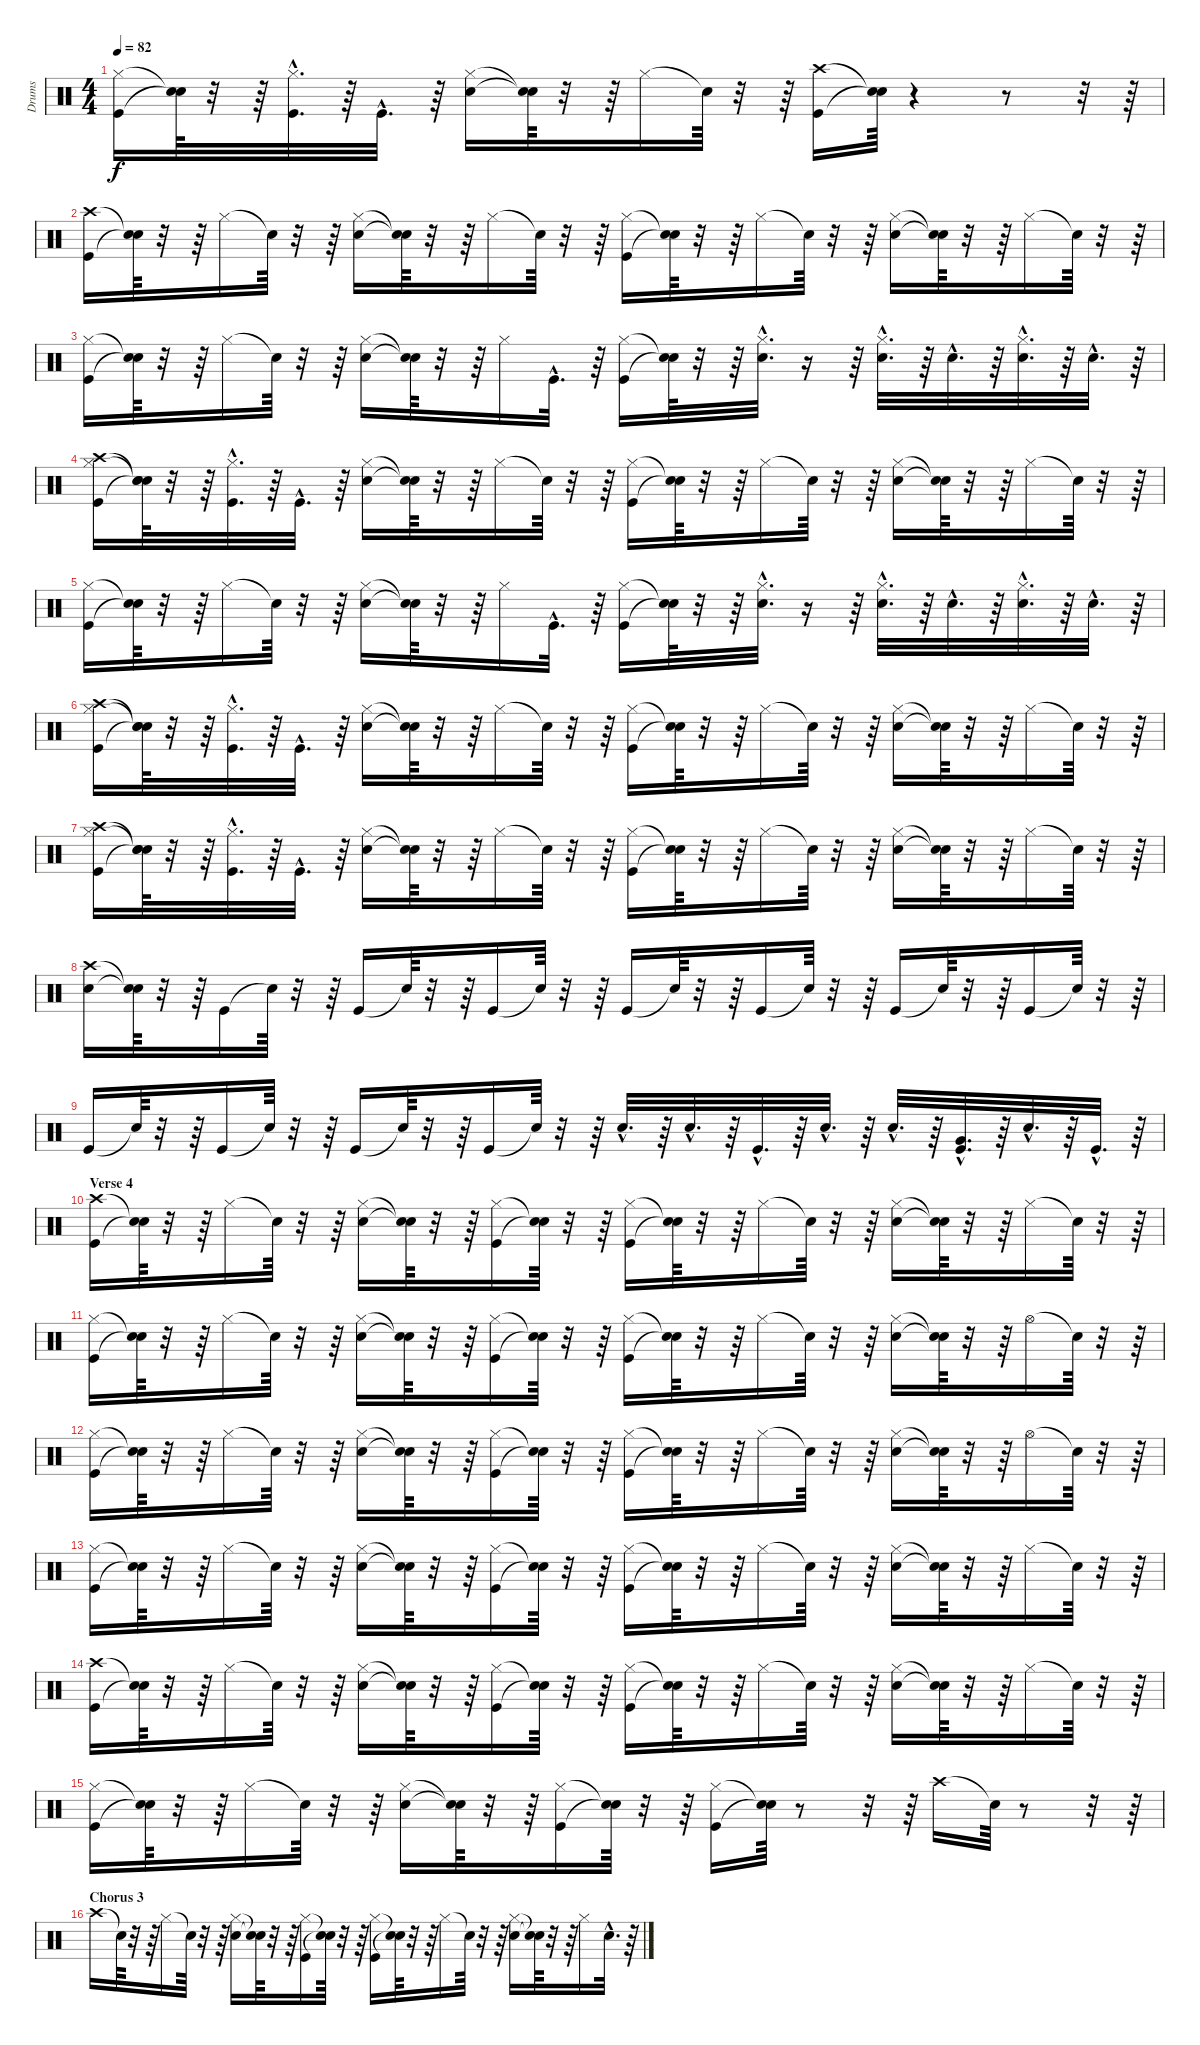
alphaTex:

\track ("Drums" "Drums") {instrument percussion}
\staff {score}
\articulation defaults
\ts (4 4)
\tempo 82
\clef neutral
\ks c
("Kick (hit)" "Hi-Hat (closed)").16{dy f} ("Snare (hit)"{t} "Snare (hit)"{t}).64 r.32 r.64 ("Kick (hit)"{hac} "Hi-Hat (closed)"{hac}).32{d} r.64 "Kick (hit)"{hac}.32{d} r.64 ("Snare (hit) 2" "Hi-Hat (closed)").16 ("Snare (hit)"{t} "Snare (hit)"{t}).64 r.32 r.64 "Hi-Hat (closed)".16 "Snare (hit)"{t}.64 r.32 r.64 ("Crash high (hit)" "Kick (hit)").16 ("Snare (hit)"{t} "Snare (hit)"{t}).64 r.4 r.8 r.32 r.64 |
("Crash high (hit)" "Kick (hit)").16 ("Snare (hit)"{t} "Snare (hit)"{t}).64 r.32 r.64 "Hi-Hat (closed)".16 "Snare (hit)"{t}.64 r.32 r.64 ("Snare (hit) 2" "Hi-Hat (closed)").16 ("Snare (hit)"{t} "Snare (hit)"{t}).64 r.32 r.64 "Hi-Hat (closed)".16 "Snare (hit)"{t}.64 r.32 r.64 ("Hi-Hat (closed)" "Kick (hit)").16 ("Snare (hit)"{t} "Snare (hit)"{t}).64 r.32 r.64 "Hi-Hat (closed)".16 "Snare (hit)"{t}.64 r.32 r.64 ("Hi-Hat (closed)" "Snare (hit) 2").16 ("Snare (hit)"{t} "Snare (hit)"{t}).64 r.32 r.64 "Hi-Hat (closed)".16 "Snare (hit)"{t}.64 r.32 r.64 |
("Kick (hit)" "Hi-Hat (closed)").16 ("Snare (hit)"{t} "Snare (hit)"{t}).64 r.32 r.64 "Hi-Hat (closed)".16 "Snare (hit)"{t}.64 r.32 r.64 ("Snare (hit) 2" "Hi-Hat (closed)").16 ("Snare (hit)"{t} "Snare (hit)"{t}).64 r.32 r.64 "Hi-Hat (closed)".16 "Kick (hit)"{hac}.32{d} r.64 ("Hi-Hat (closed)" "Kick (hit)").16 ("Snare (hit)"{t} "Snare (hit)"{t}).64 r.32 r.64 ("Hi-Hat (closed)"{hac} "Snare (hit) 2"{hac}).32{d} r.16 r.64 ("Hi-Hat (closed)"{hac} "Snare (hit) 2"{hac}).32{d} r.64 "Snare (hit) 2"{hac}.32{d} r.64 ("Hi-Hat (closed)"{hac} "Snare (hit) 2"{hac}).32{d} r.64 "Snare (hit) 2"{hac}.32{d} r.64 |
("Crash high (hit)" "Kick (hit)" "Hi-Hat (closed)").16 ("Snare (hit)"{t} "Snare (hit)"{t} "Snare (hit)"{t}).64 r.32 r.64 ("Hi-Hat (closed)"{hac} "Kick (hit)"{hac}).32{d} r.64 "Kick (hit)"{hac}.32{d} r.64 ("Snare (hit) 2" "Hi-Hat (closed)").16 ("Snare (hit)"{t} "Snare (hit)"{t}).64 r.32 r.64 "Hi-Hat (closed)".16 "Snare (hit)"{t}.64 r.32 r.64 ("Hi-Hat (closed)" "Kick (hit)").16 ("Snare (hit)"{t} "Snare (hit)"{t}).64 r.32 r.64 "Hi-Hat (closed)".16 "Snare (hit)"{t}.64 r.32 r.64 ("Hi-Hat (closed)" "Snare (hit) 2").16 ("Snare (hit)"{t} "Snare (hit)"{t}).64 r.32 r.64 "Hi-Hat (closed)".16 "Snare (hit)"{t}.64 r.32 r.64 |
("Kick (hit)" "Hi-Hat (closed)").16 ("Snare (hit)"{t} "Snare (hit)"{t}).64 r.32 r.64 "Hi-Hat (closed)".16 "Snare (hit)"{t}.64 r.32 r.64 ("Snare (hit) 2" "Hi-Hat (closed)").16 ("Snare (hit)"{t} "Snare (hit)"{t}).64 r.32 r.64 "Hi-Hat (closed)".16 "Kick (hit)"{hac}.32{d} r.64 ("Hi-Hat (closed)" "Kick (hit)").16 ("Snare (hit)"{t} "Snare (hit)"{t}).64 r.32 r.64 ("Hi-Hat (closed)"{hac} "Snare (hit) 2"{hac}).32{d} r.16 r.64 ("Hi-Hat (closed)"{hac} "Snare (hit) 2"{hac}).32{d} r.64 "Snare (hit) 2"{hac}.32{d} r.64 ("Hi-Hat (closed)"{hac} "Snare (hit) 2"{hac}).32{d} r.64 "Snare (hit) 2"{hac}.32{d} r.64 |
("Crash high (hit)" "Kick (hit)" "Hi-Hat (closed)").16 ("Snare (hit)"{t} "Snare (hit)"{t} "Snare (hit)"{t}).64 r.32 r.64 ("Hi-Hat (closed)"{hac} "Kick (hit)"{hac}).32{d} r.64 "Kick (hit)"{hac}.32{d} r.64 ("Snare (hit) 2" "Hi-Hat (closed)").16 ("Snare (hit)"{t} "Snare (hit)"{t}).64 r.32 r.64 "Hi-Hat (closed)".16 "Snare (hit)"{t}.64 r.32 r.64 ("Hi-Hat (closed)" "Kick (hit)").16 ("Snare (hit)"{t} "Snare (hit)"{t}).64 r.32 r.64 "Hi-Hat (closed)".16 "Snare (hit)"{t}.64 r.32 r.64 ("Hi-Hat (closed)" "Snare (hit) 2").16 ("Snare (hit)"{t} "Snare (hit)"{t}).64 r.32 r.64 "Hi-Hat (closed)".16 "Snare (hit)"{t}.64 r.32 r.64 |
("Crash high (hit)" "Kick (hit)" "Hi-Hat (closed)").16 ("Snare (hit)"{t} "Snare (hit)"{t} "Snare (hit)"{t}).64 r.32 r.64 ("Hi-Hat (closed)"{hac} "Kick (hit)"{hac}).32{d} r.64 "Kick (hit)"{hac}.32{d} r.64 ("Snare (hit) 2" "Hi-Hat (closed)").16 ("Snare (hit)"{t} "Snare (hit)"{t}).64 r.32 r.64 "Hi-Hat (closed)".16 "Snare (hit)"{t}.64 r.32 r.64 ("Hi-Hat (closed)" "Kick (hit)").16 ("Snare (hit)"{t} "Snare (hit)"{t}).64 r.32 r.64 "Hi-Hat (closed)".16 "Snare (hit)"{t}.64 r.32 r.64 ("Hi-Hat (closed)" "Snare (hit) 2").16 ("Snare (hit)"{t} "Snare (hit)"{t}).64 r.32 r.64 "Hi-Hat (closed)".16 "Snare (hit)"{t}.64 r.32 r.64 |
("Crash high (hit)" "Snare (hit) 2").16 ("Snare (hit)"{t} "Snare (hit)"{t}).64 r.32 r.64 "Kick (hit)".16 "Snare (hit)"{t}.64 r.32 r.64 "Kick (hit)".16 "Snare (hit)"{t}.64 r.32 r.64 "Kick (hit)".16 "Snare (hit)"{t}.64 r.32 r.64 "Kick (hit)".16 "Snare (hit)"{t}.64 r.32 r.64 "Kick (hit)".16 "Snare (hit)"{t}.64 r.32 r.64 "Kick (hit)".16 "Snare (hit)"{t}.64 r.32 r.64 "Kick (hit)".16 "Snare (hit)"{t}.64 r.32 r.64 |
"Kick (hit)".16 "Snare (hit)"{t}.64 r.32 r.64 "Kick (hit)".16 "Snare (hit)"{t}.64 r.32 r.64 "Kick (hit)".16 "Snare (hit)"{t}.64 r.32 r.64 "Kick (hit)".16 "Snare (hit)"{t}.64 r.32 r.64 "Snare (hit) 2"{hac}.32{d} r.64 "Snare (hit) 2"{hac}.32{d} r.64 "Kick (hit)"{hac}.32{d} r.64 "Snare (hit) 2"{hac}.32{d} r.64 "Snare (hit) 2"{hac}.32{d} r.64 ("Kick (hit)"{hac} "Very Low Tom (hit)"{hac}).32{d} r.64 "Snare (hit) 2"{hac}.32{d} r.64 "Kick (hit)"{hac}.32{d} r.64 |
\section ("" "Verse 4")
("Crash high (hit)" "Kick (hit)").16 ("Snare (hit)"{t} "Snare (hit)"{t}).64 r.32 r.64 "Hi-Hat (closed)".16 "Snare (hit)"{t}.64 r.32 r.64 ("Snare (hit) 2" "Hi-Hat (closed)").16 ("Snare (hit)"{t} "Snare (hit)"{t}).64 r.32 r.64 ("Hi-Hat (closed)" "Kick (hit)").16 ("Snare (hit)"{t} "Snare (hit)"{t}).64 r.32 r.64 ("Hi-Hat (closed)" "Kick (hit)").16 ("Snare (hit)"{t} "Snare (hit)"{t}).64 r.32 r.64 "Hi-Hat (closed)".16 "Snare (hit)"{t}.64 r.32 r.64 ("Hi-Hat (closed)" "Snare (hit) 2").16 ("Snare (hit)"{t} "Snare (hit)"{t}).64 r.32 r.64 "Hi-Hat (closed)".16 "Snare (hit)"{t}.64 r.32 r.64 |
("Kick (hit)" "Hi-Hat (closed)").16 ("Snare (hit)"{t} "Snare (hit)"{t}).64 r.32 r.64 "Hi-Hat (closed)".16 "Snare (hit)"{t}.64 r.32 r.64 ("Snare (hit) 2" "Hi-Hat (closed)").16 ("Snare (hit)"{t} "Snare (hit)"{t}).64 r.32 r.64 ("Hi-Hat (closed)" "Kick (hit)").16 ("Snare (hit)"{t} "Snare (hit)"{t}).64 r.32 r.64 ("Hi-Hat (closed)" "Kick (hit)").16 ("Snare (hit)"{t} "Snare (hit)"{t}).64 r.32 r.64 "Hi-Hat (closed)".16 "Snare (hit)"{t}.64 r.32 r.64 ("Hi-Hat (closed)" "Snare (hit) 2").16 ("Snare (hit)"{t} "Snare (hit)"{t}).64 r.32 r.64 "Hi-Hat (open)".16 "Snare (hit)"{t}.64 r.32 r.64 |
("Kick (hit)" "Hi-Hat (closed)").16 ("Snare (hit)"{t} "Snare (hit)"{t}).64 r.32 r.64 "Hi-Hat (closed)".16 "Snare (hit)"{t}.64 r.32 r.64 ("Snare (hit) 2" "Hi-Hat (closed)").16 ("Snare (hit)"{t} "Snare (hit)"{t}).64 r.32 r.64 ("Hi-Hat (closed)" "Kick (hit)").16 ("Snare (hit)"{t} "Snare (hit)"{t}).64 r.32 r.64 ("Hi-Hat (closed)" "Kick (hit)").16 ("Snare (hit)"{t} "Snare (hit)"{t}).64 r.32 r.64 "Hi-Hat (closed)".16 "Snare (hit)"{t}.64 r.32 r.64 ("Hi-Hat (closed)" "Snare (hit) 2").16 ("Snare (hit)"{t} "Snare (hit)"{t}).64 r.32 r.64 "Hi-Hat (open)".16 "Snare (hit)"{t}.64 r.32 r.64 |
("Kick (hit)" "Hi-Hat (closed)").16 ("Snare (hit)"{t} "Snare (hit)"{t}).64 r.32 r.64 "Hi-Hat (closed)".16 "Snare (hit)"{t}.64 r.32 r.64 ("Snare (hit) 2" "Hi-Hat (closed)").16 ("Snare (hit)"{t} "Snare (hit)"{t}).64 r.32 r.64 ("Kick (hit)" "Hi-Hat (closed)").16 ("Snare (hit)"{t} "Snare (hit)"{t}).64 r.32 r.64 ("Kick (hit)" "Hi-Hat (closed)").16 ("Snare (hit)"{t} "Snare (hit)"{t}).64 r.32 r.64 "Hi-Hat (closed)".16 "Snare (hit)"{t}.64 r.32 r.64 ("Snare (hit) 2" "Hi-Hat (closed)").16 ("Snare (hit)"{t} "Snare (hit)"{t}).64 r.32 r.64 "Hi-Hat (closed)".16 "Snare (hit)"{t}.64 r.32 r.64 |
("Kick (hit)" "Crash high (hit)").16 ("Snare (hit)"{t} "Snare (hit)"{t}).64 r.32 r.64 "Hi-Hat (closed)".16 "Snare (hit)"{t}.64 r.32 r.64 ("Snare (hit) 2" "Hi-Hat (closed)").16 ("Snare (hit)"{t} "Snare (hit)"{t}).64 r.32 r.64 ("Hi-Hat (closed)" "Kick (hit)").16 ("Snare (hit)"{t} "Snare (hit)"{t}).64 r.32 r.64 ("Hi-Hat (closed)" "Kick (hit)").16 ("Snare (hit)"{t} "Snare (hit)"{t}).64 r.32 r.64 "Hi-Hat (closed)".16 "Snare (hit)"{t}.64 r.32 r.64 ("Hi-Hat (closed)" "Snare (hit) 2").16 ("Snare (hit)"{t} "Snare (hit)"{t}).64 r.32 r.64 "Hi-Hat (closed)".16 "Snare (hit)"{t}.64 r.32 r.64 |
("Kick (hit)" "Hi-Hat (closed)").16 ("Snare (hit)"{t} "Snare (hit)"{t}).64 r.32 r.64 "Hi-Hat (closed)".16 "Snare (hit)"{t}.64 r.32 r.64 ("Snare (hit) 2" "Hi-Hat (closed)").16 ("Snare (hit)"{t} "Snare (hit)"{t}).64 r.32 r.64 ("Hi-Hat (closed)" "Kick (hit)").16 ("Snare (hit)"{t} "Snare (hit)"{t}).64 r.32 r.64 ("Hi-Hat (closed)" "Kick (hit)").16 ("Snare (hit)"{t} "Snare (hit)"{t}).64 r.8 r.32 r.64 "Crash high (hit)".16 "Snare (hit)"{t}.64 r.8 r.32 r.64 |
\section ("" "Chorus 3")
"Crash high (hit)".16 "Snare (hit)"{t}.64 r.32 r.64 "Hi-Hat (closed)".16 "Snare (hit)"{t}.64 r.32 r.64 ("Snare (hit) 2" "Hi-Hat (closed)").16 ("Snare (hit)"{t} "Snare (hit)"{t}).64 r.32 r.64 ("Kick (hit)" "Hi-Hat (closed)").16 ("Snare (hit)"{t} "Snare (hit)"{t}).64 r.32 r.64 ("Kick (hit)" "Hi-Hat (closed)").16 ("Snare (hit)"{t} "Snare (hit)"{t}).64 r.32 r.64 "Hi-Hat (closed)".16 "Snare (hit)"{t}.64 r.32 r.64 ("Snare (hit) 2" "Hi-Hat (closed)").16 ("Snare (hit)"{t} "Snare (hit)"{t}).64 r.32 r.64 "Hi-Hat (closed)".16 "Snare (hit) 2"{hac}.32{d} r.64
